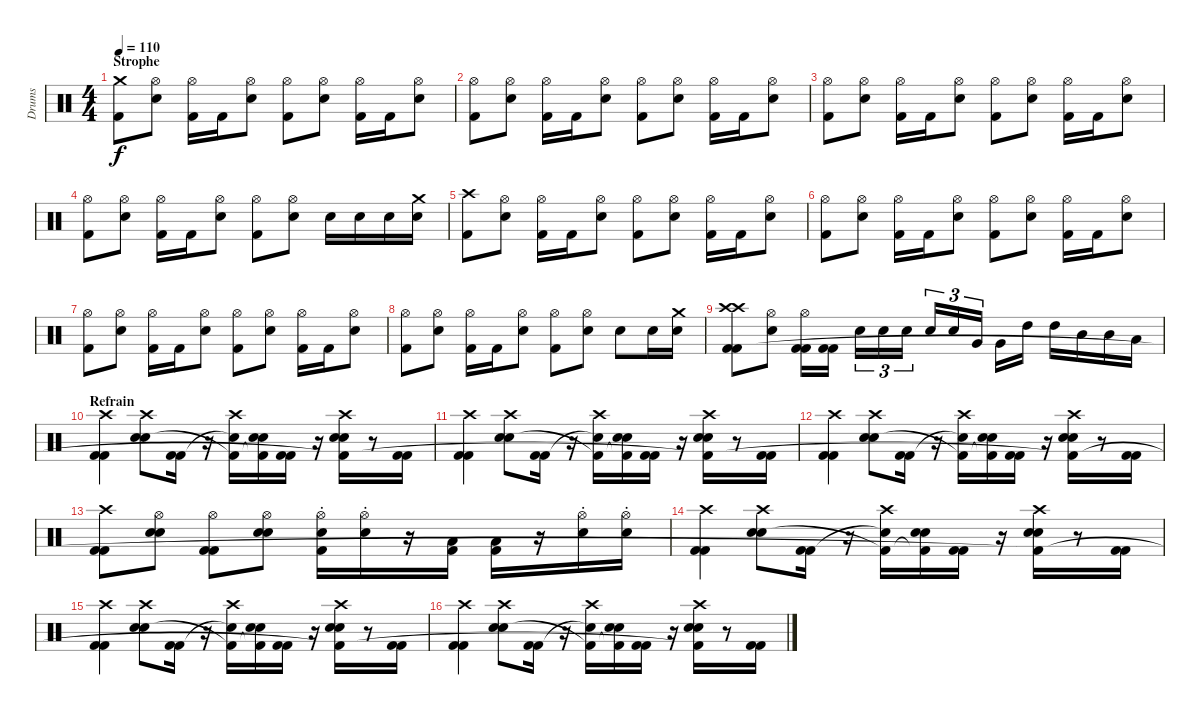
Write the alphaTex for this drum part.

\track ("Drums" "Drums") {instrument percussion}
\staff {score}
\articulation defaults
\ts (4 4)
\section ("" "Strophe")
\tempo 110
\clef neutral
\ks c
("Crash medium (hit)" "Kick (hit) 2").8{dy f} ("Hi-Hat (open)" "Snare (hit) 2").8 ("Hi-Hat (open)" "Kick (hit) 2").16 "Kick (hit) 2".16 ("Hi-Hat (open)" "Snare (hit) 2").8 ("Hi-Hat (open)" "Kick (hit) 2").8 ("Hi-Hat (open)" "Snare (hit) 2").8 ("Hi-Hat (open)" "Kick (hit) 2").16 "Kick (hit) 2".16 ("Hi-Hat (open)" "Snare (hit) 2").8 |
("Hi-Hat (open)" "Kick (hit) 2").8 ("Hi-Hat (open)" "Snare (hit) 2").8 ("Hi-Hat (open)" "Kick (hit) 2").16 "Kick (hit) 2".16 ("Hi-Hat (open)" "Snare (hit) 2").8 ("Hi-Hat (open)" "Kick (hit) 2").8 ("Hi-Hat (open)" "Snare (hit) 2").8 ("Hi-Hat (open)" "Kick (hit) 2").16 "Kick (hit) 2".16 ("Hi-Hat (open)" "Snare (hit) 2").8 |
("Hi-Hat (open)" "Kick (hit) 2").8 ("Hi-Hat (open)" "Snare (hit) 2").8 ("Hi-Hat (open)" "Kick (hit) 2").16 "Kick (hit) 2".16 ("Hi-Hat (open)" "Snare (hit) 2").8 ("Hi-Hat (open)" "Kick (hit) 2").8 ("Hi-Hat (open)" "Snare (hit) 2").8 ("Hi-Hat (open)" "Kick (hit) 2").16 "Kick (hit) 2".16 ("Hi-Hat (open)" "Snare (hit) 2").8 |
("Hi-Hat (open)" "Kick (hit) 2").8 ("Hi-Hat (open)" "Snare (hit) 2").8 ("Hi-Hat (open)" "Kick (hit) 2").16 "Kick (hit) 2".16 ("Hi-Hat (open)" "Snare (hit) 2").8 ("Hi-Hat (open)" "Kick (hit) 2").8 ("Hi-Hat (open)" "Snare (hit) 2").8 "Snare (hit) 2".16 "Snare (hit) 2".16 "Snare (hit) 2".16 ("Crash medium (hit)" "Snare (hit) 2").16 |
("Crash high (hit)" "Kick (hit) 2").8 ("Hi-Hat (open)" "Snare (hit) 2").8 ("Hi-Hat (open)" "Kick (hit) 2").16 "Kick (hit) 2".16 ("Hi-Hat (open)" "Snare (hit) 2").8 ("Hi-Hat (open)" "Kick (hit) 2").8 ("Hi-Hat (open)" "Snare (hit) 2").8 ("Hi-Hat (open)" "Kick (hit) 2").16 "Kick (hit) 2".16 ("Hi-Hat (open)" "Snare (hit) 2").8 |
("Hi-Hat (open)" "Kick (hit) 2").8 ("Hi-Hat (open)" "Snare (hit) 2").8 ("Hi-Hat (open)" "Kick (hit) 2").16 "Kick (hit) 2".16 ("Hi-Hat (open)" "Snare (hit) 2").8 ("Hi-Hat (open)" "Kick (hit) 2").8 ("Hi-Hat (open)" "Snare (hit) 2").8 ("Hi-Hat (open)" "Kick (hit) 2").16 "Kick (hit) 2".16 ("Hi-Hat (open)" "Snare (hit) 2").8 |
("Hi-Hat (open)" "Kick (hit) 2").8 ("Hi-Hat (open)" "Snare (hit) 2").8 ("Hi-Hat (open)" "Kick (hit) 2").16 "Kick (hit) 2".16 ("Hi-Hat (open)" "Snare (hit) 2").8 ("Hi-Hat (open)" "Kick (hit) 2").8 ("Hi-Hat (open)" "Snare (hit) 2").8 ("Hi-Hat (open)" "Kick (hit) 2").16 "Kick (hit) 2".16 ("Hi-Hat (open)" "Snare (hit) 2").8 |
("Hi-Hat (open)" "Kick (hit) 2").8 ("Hi-Hat (open)" "Snare (hit) 2").8 ("Hi-Hat (open)" "Kick (hit) 2").16 "Kick (hit) 2".16 ("Hi-Hat (open)" "Snare (hit) 2").8 ("Hi-Hat (open)" "Kick (hit) 2").8 ("Hi-Hat (open)" "Snare (hit) 2").8 "Snare (hit) 2".8 "Snare (hit) 2".16 ("Crash medium (hit)" "Snare (hit) 2").16 |
("Crash high (hit)" "Crash high (hit)" "Kick (hit) 2" "Kick (hit) 2").8 ("Hi-Hat (open)" "Snare (hit) 2").8 ("Hi-Hat (open)" "Kick (hit) 2" "Kick (hit) 2").16 ("Kick (hit) 2" "Kick (hit) 2").16 "Snare (hit) 2".16{tu (3 2)} "Snare (hit) 2".16{tu (3 2)} "Snare (hit) 2".16{tu (3 2)} "Snare (hit) 2".16{tu (3 2)} "Snare (hit) 2".16{tu (3 2)} "Very Low Tom (hit)".16{tu (3 2)} "Very Low Tom (hit)".16 "High Tom (hit)".16 "High Tom (hit)".16 "Mid Tom (hit)".16 "Mid Tom (hit)".16 "Low Tom (hit)".16 |
\section ("" "Refrain")
("Crash high (hit)" "Kick (hit) 2" "Kick (hit) 2").4 ("Crash high (hit)" "Snare (hit) 2" "Snare (hit) 2").8 ("Kick (hit) 2" "Kick (hit) 2").16 r.16 ("Crash high (hit)" "Snare (hit) 2"{t} "Kick (hit) 2"{t}).16 ("Snare (hit) 2" "Snare (hit) 2" "Kick (hit) 2"{t}).16 ("Kick (hit) 2" "Kick (hit) 2").16 r.16 ("Crash high (hit)" "Snare (hit) 2" "Snare (hit) 2" "Kick (hit) 2"{t}).16 r.8 ("Kick (hit) 2" "Kick (hit) 2").16 |
("Crash high (hit)" "Kick (hit) 2" "Kick (hit) 2").4 ("Crash high (hit)" "Snare (hit) 2" "Snare (hit) 2").8 ("Kick (hit) 2" "Kick (hit) 2").16 r.16 ("Crash high (hit)" "Snare (hit) 2"{t} "Kick (hit) 2"{t}).16 ("Snare (hit) 2" "Snare (hit) 2" "Kick (hit) 2"{t}).16 ("Kick (hit) 2" "Kick (hit) 2").16 r.16 ("Crash high (hit)" "Snare (hit) 2" "Snare (hit) 2" "Kick (hit) 2"{t}).16 r.8 ("Kick (hit) 2" "Kick (hit) 2").16 |
("Crash high (hit)" "Kick (hit) 2" "Kick (hit) 2").4 ("Crash high (hit)" "Snare (hit) 2" "Snare (hit) 2").8 ("Kick (hit) 2" "Kick (hit) 2").16 r.16 ("Crash high (hit)" "Snare (hit) 2"{t} "Kick (hit) 2"{t}).16 ("Snare (hit) 2" "Snare (hit) 2" "Kick (hit) 2"{t}).16 ("Kick (hit) 2" "Kick (hit) 2").16 r.16 ("Crash high (hit)" "Snare (hit) 2" "Snare (hit) 2" "Kick (hit) 2"{t}).16 r.8 ("Kick (hit) 2" "Kick (hit) 2").16 |
("Crash high (hit)" "Kick (hit) 2" "Kick (hit) 2").8 ("Hi-Hat (open)" "Snare (hit) 2" "Snare (hit) 2").8 ("Hi-Hat (open)" "Kick (hit) 2" "Kick (hit) 2").8 ("Hi-Hat (open)" "Snare (hit) 2" "Snare (hit) 2").8 ("Hi-Hat (open)"{st} "Snare (hit) 2" "Kick (hit) 2").16 ("Hi-Hat (open)"{st} "Snare (hit) 2").16 r.16 ("Low Tom (hit)" "Kick (hit) 2").16 ("Low Tom (hit)" "Kick (hit) 2").16 r.16 ("Hi-Hat (open)"{st} "Snare (hit) 2").16 ("Hi-Hat (open)"{st} "Snare (hit) 2").16 |
("Crash high (hit)" "Kick (hit) 2" "Kick (hit) 2").4 ("Crash high (hit)" "Snare (hit) 2" "Snare (hit) 2").8 ("Kick (hit) 2" "Kick (hit) 2").16 r.16 ("Crash high (hit)" "Snare (hit) 2"{t} "Kick (hit) 2"{t}).16 ("Snare (hit) 2" "Snare (hit) 2" "Kick (hit) 2"{t}).16 ("Kick (hit) 2" "Kick (hit) 2").16 r.16 ("Crash high (hit)" "Snare (hit) 2" "Snare (hit) 2" "Kick (hit) 2"{t}).16 r.8 ("Kick (hit) 2" "Kick (hit) 2").16 |
("Crash high (hit)" "Kick (hit) 2" "Kick (hit) 2").4 ("Crash high (hit)" "Snare (hit) 2" "Snare (hit) 2").8 ("Kick (hit) 2" "Kick (hit) 2").16 r.16 ("Crash high (hit)" "Snare (hit) 2"{t} "Kick (hit) 2"{t}).16 ("Snare (hit) 2" "Snare (hit) 2" "Kick (hit) 2"{t}).16 ("Kick (hit) 2" "Kick (hit) 2").16 r.16 ("Crash high (hit)" "Snare (hit) 2" "Snare (hit) 2" "Kick (hit) 2"{t}).16 r.8 ("Kick (hit) 2" "Kick (hit) 2").16 |
("Crash high (hit)" "Kick (hit) 2" "Kick (hit) 2").4 ("Crash high (hit)" "Snare (hit) 2" "Snare (hit) 2").8 ("Kick (hit) 2" "Kick (hit) 2").16 r.16 ("Crash high (hit)" "Snare (hit) 2"{t} "Kick (hit) 2"{t}).16 ("Snare (hit) 2" "Snare (hit) 2" "Kick (hit) 2"{t}).16 ("Kick (hit) 2" "Kick (hit) 2").16 r.16 ("Crash high (hit)" "Snare (hit) 2" "Snare (hit) 2" "Kick (hit) 2"{t}).16 r.8 ("Kick (hit) 2" "Kick (hit) 2").16
